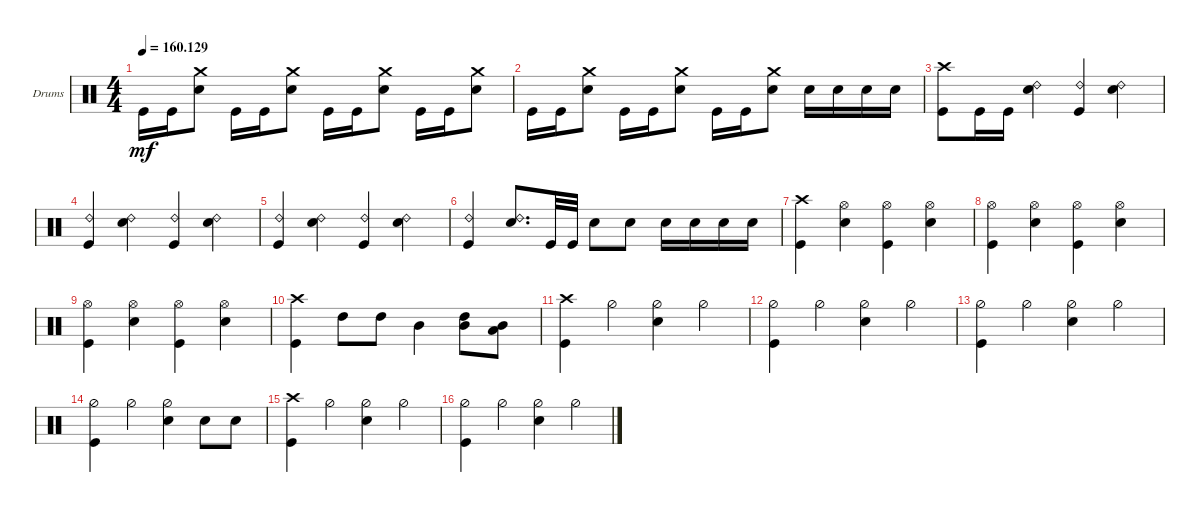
\defaultSystemsLayout 4
\bracketExtendMode groupsimilarinstruments
\firstSystemTrackNameOrientation horizontal
\otherSystemsTrackNameOrientation horizontal
\track ("Drumkit" "Drums") {instrument percussion}
\staff {score}
\articulation defaults
\ts (4 4)
\tempo
160.129
\accidentals auto
\clef neutral
\ottava regular
\simile none
\ks c "Kick (hit)".16{dy mf} "Kick (hit)".16
("Snare (hit) 2" "Crash medium (hit)").8 "Kick (hit)".16 "Kick (hit)".16 ("Snare (hit) 2" "Crash medium (hit)").8 "Kick (hit)".16 "Kick (hit)".16 ("Snare (hit) 2" "Crash medium (hit)").8 "Kick (hit)".16 "Kick (hit)".16 ("Snare (hit) 2" "Crash medium (hit)").8 |
"Kick (hit)".16 "Kick (hit)".16 ("Snare (hit) 2" "Crash medium (hit)").8 "Kick (hit)".16 "Kick (hit)".16 ("Snare (hit) 2" "Crash medium (hit)").8 "Kick (hit)".16 "Kick (hit)".16 ("Snare (hit) 2" "Crash medium (hit)").8 "Snare (hit) 2".16 "Snare (hit) 2".16 "Snare (hit) 2".16 "Snare (hit) 2".16 |
("Kick (hit)" "Crash high (hit)").8 "Kick (hit)".16 "Kick (hit)".16 ("Snare (hit) 2" "Ride (bell) 2").4 ("Kick (hit)" "Ride (bell) 2").4 ("Ride (bell) 2" "Snare (hit) 2").4 |
("Kick (hit)" "Ride (bell) 2").4 ("Snare (hit) 2" "Ride (bell) 2").4 ("Kick (hit)" "Ride (bell) 2").4 ("Snare (hit) 2" "Ride (bell) 2").4 |
("Kick (hit)" "Ride (bell) 2").4 ("Snare (hit) 2" "Ride (bell) 2").4 ("Kick (hit)" "Ride (bell) 2").4 ("Snare (hit) 2" "Ride (bell) 2").4 |
("Kick (hit)" "Ride (bell) 2").4 ("Snare (hit) 2" "Ride (bell) 2").8{d} "Kick (hit)".32 "Kick (hit)".32 "Snare (hit) 2".8 "Snare (hit) 2".8 "Snare (hit) 2".16 "Snare (hit) 2".16 "Snare (hit) 2".16 "Snare (hit) 2".16 |
("Kick (hit)" "Crash high (hit)").4 ("Hi-Hat (open)" "Snare (hit) 2").4 ("Hi-Hat (open)" "Kick (hit)").4 ("Hi-Hat (open)" "Snare (hit) 2").4 |
("Hi-Hat (open)" "Kick (hit)").4 ("Hi-Hat (open)" "Snare (hit) 2").4 ("Hi-Hat (open)" "Kick (hit)").4 ("Hi-Hat (open)" "Snare (hit) 2").4 |
("Hi-Hat (open)" "Kick (hit)").4 ("Hi-Hat (open)" "Snare (hit) 2").4 ("Hi-Hat (open)" "Kick (hit)").4 ("Hi-Hat (open)" "Snare (hit) 2").4 |
("Kick (hit)" "Crash high (hit)").4 "High Tom (hit)".8 "High Tom (hit)".8 "Mid Tom (hit)".4 ("High Tom (hit)" "Mid Tom (hit)").8 ("Mid Tom (hit)" "Low Tom (hit)").8 |
("Kick (hit)" "Crash high (hit)").4 "Hi-Hat (half)".4 ("Hi-Hat (half)" "Snare (hit) 2").4 "Hi-Hat (half)".4 |
("Hi-Hat (half)" "Kick (hit)").4 "Hi-Hat (half)".4 ("Hi-Hat (half)" "Snare (hit) 2").4 "Hi-Hat (half)".4 |
("Hi-Hat (half)" "Kick (hit)").4 "Hi-Hat (half)".4 ("Hi-Hat (half)" "Snare (hit) 2").4 "Hi-Hat (half)".4 |
("Hi-Hat (half)" "Kick (hit)").4 "Hi-Hat (half)".4 ("Hi-Hat (half)" "Snare (hit) 2").4 "Snare (hit) 2".8 "Snare (hit) 2".8 |
("Kick (hit)" "Crash high (hit)").4 "Hi-Hat (half)".4 ("Hi-Hat (half)" "Snare (hit) 2").4 "Hi-Hat (half)".4 |
("Hi-Hat (half)" "Kick (hit)").4 "Hi-Hat (half)".4 ("Hi-Hat (half)" "Snare (hit) 2").4 "Hi-Hat (half)".4
